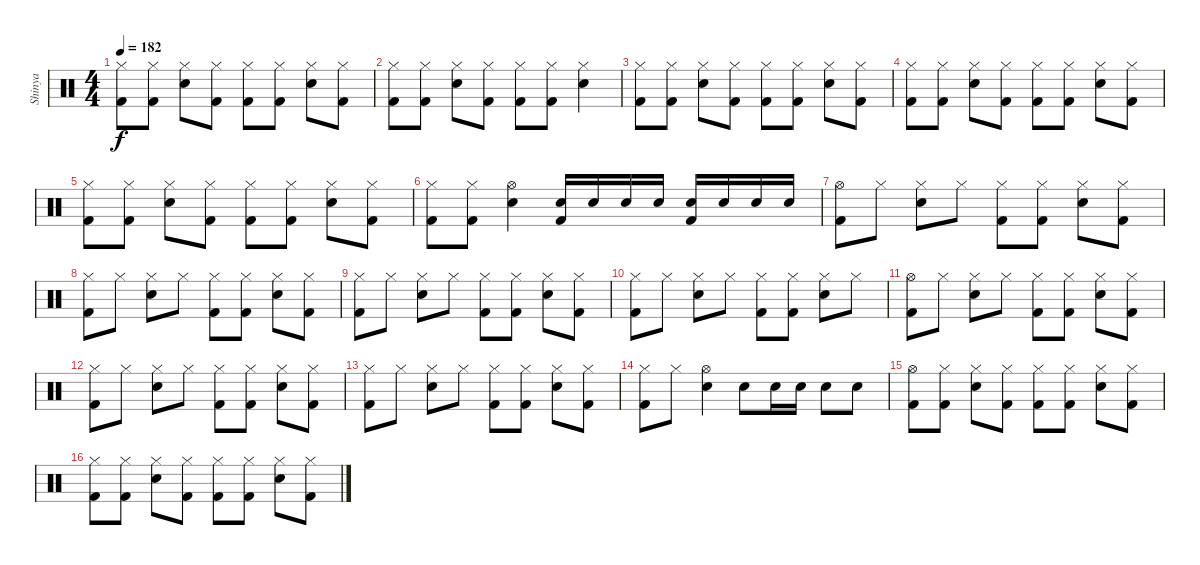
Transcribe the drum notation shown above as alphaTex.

\track ("Shinya" "Shinya") {instrument percussion}
\staff {score}
\articulation defaults
\ts (4 4)
\tempo 182
\clef neutral
\ks c
("Kick (hit) 2" "Hi-Hat (closed)").8{dy f} ("Kick (hit) 2" "Hi-Hat (closed)").8 ("Snare (hit) 2" "Hi-Hat (closed)").8 ("Kick (hit) 2" "Hi-Hat (closed)").8 ("Kick (hit) 2" "Hi-Hat (closed)").8 ("Kick (hit) 2" "Hi-Hat (closed)").8 ("Snare (hit) 2" "Hi-Hat (closed)").8 ("Kick (hit) 2" "Hi-Hat (closed)").8 |
("Kick (hit) 2" "Hi-Hat (closed)").8 ("Kick (hit) 2" "Hi-Hat (closed)").8 ("Snare (hit) 2" "Hi-Hat (closed)").8 ("Kick (hit) 2" "Hi-Hat (closed)").8 ("Kick (hit) 2" "Hi-Hat (closed)").8 ("Kick (hit) 2" "Hi-Hat (closed)").8 ("Hi-Hat (closed)" "Snare (hit) 2").4 |
("Kick (hit) 2" "Hi-Hat (closed)").8 ("Kick (hit) 2" "Hi-Hat (closed)").8 ("Snare (hit) 2" "Hi-Hat (closed)").8 ("Kick (hit) 2" "Hi-Hat (closed)").8 ("Kick (hit) 2" "Hi-Hat (closed)").8 ("Kick (hit) 2" "Hi-Hat (closed)").8 ("Snare (hit) 2" "Hi-Hat (closed)").8 ("Kick (hit) 2" "Hi-Hat (closed)").8 |
("Kick (hit) 2" "Hi-Hat (closed)").8 ("Kick (hit) 2" "Hi-Hat (closed)").8 ("Snare (hit) 2" "Hi-Hat (closed)").8 ("Kick (hit) 2" "Hi-Hat (closed)").8 ("Kick (hit) 2" "Hi-Hat (closed)").8 ("Kick (hit) 2" "Hi-Hat (closed)").8 ("Snare (hit) 2" "Hi-Hat (closed)").8 ("Kick (hit) 2" "Hi-Hat (closed)").8 |
("Kick (hit) 2" "Hi-Hat (closed)").8 ("Kick (hit) 2" "Hi-Hat (closed)").8 ("Snare (hit) 2" "Hi-Hat (closed)").8 ("Kick (hit) 2" "Hi-Hat (closed)").8 ("Kick (hit) 2" "Hi-Hat (closed)").8 ("Kick (hit) 2" "Hi-Hat (closed)").8 ("Snare (hit) 2" "Hi-Hat (closed)").8 ("Kick (hit) 2" "Hi-Hat (closed)").8 |
("Kick (hit) 2" "Hi-Hat (closed)").8 ("Kick (hit) 2" "Hi-Hat (closed)").8 ("Snare (hit) 2" "Hi-Hat (open)").4 ("Snare (hit) 2" "Kick (hit) 2").16 "Snare (hit) 2".16 "Snare (hit) 2".16 "Snare (hit) 2".16 ("Snare (hit) 2" "Kick (hit) 2").16 "Snare (hit) 2".16 "Snare (hit) 2".16 "Snare (hit) 2".16 |
("Kick (hit) 2" "Hi-Hat (open)").8 "Hi-Hat (closed)".8 ("Snare (hit) 2" "Hi-Hat (closed)").8 "Hi-Hat (closed)".8 ("Kick (hit) 2" "Hi-Hat (closed)").8 ("Kick (hit) 2" "Hi-Hat (closed)").8 ("Snare (hit) 2" "Hi-Hat (closed)").8 ("Kick (hit) 2" "Hi-Hat (closed)").8 |
("Kick (hit) 2" "Hi-Hat (closed)").8 "Hi-Hat (closed)".8 ("Snare (hit) 2" "Hi-Hat (closed)").8 "Hi-Hat (closed)".8 ("Kick (hit) 2" "Hi-Hat (closed)").8 ("Kick (hit) 2" "Hi-Hat (closed)").8 ("Snare (hit) 2" "Hi-Hat (closed)").8 ("Kick (hit) 2" "Hi-Hat (closed)").8 |
("Kick (hit) 2" "Hi-Hat (closed)").8 "Hi-Hat (closed)".8 ("Snare (hit) 2" "Hi-Hat (closed)").8 "Hi-Hat (closed)".8 ("Kick (hit) 2" "Hi-Hat (closed)").8 ("Kick (hit) 2" "Hi-Hat (closed)").8 ("Snare (hit) 2" "Hi-Hat (closed)").8 ("Kick (hit) 2" "Hi-Hat (closed)").8 |
("Kick (hit) 2" "Hi-Hat (closed)").8 "Hi-Hat (closed)".8 ("Snare (hit) 2" "Hi-Hat (closed)").8 "Hi-Hat (closed)".8 ("Kick (hit) 2" "Hi-Hat (closed)").8 ("Kick (hit) 2" "Hi-Hat (closed)").8 ("Snare (hit) 2" "Hi-Hat (closed)").8 "Hi-Hat (closed)".8 |
("Kick (hit) 2" "Hi-Hat (open)").8 "Hi-Hat (closed)".8 ("Snare (hit) 2" "Hi-Hat (closed)").8 "Hi-Hat (closed)".8 ("Kick (hit) 2" "Hi-Hat (closed)").8 ("Kick (hit) 2" "Hi-Hat (closed)").8 ("Snare (hit) 2" "Hi-Hat (closed)").8 ("Kick (hit) 2" "Hi-Hat (closed)").8 |
("Kick (hit) 2" "Hi-Hat (closed)").8 "Hi-Hat (closed)".8 ("Snare (hit) 2" "Hi-Hat (closed)").8 "Hi-Hat (closed)".8 ("Kick (hit) 2" "Hi-Hat (closed)").8 ("Kick (hit) 2" "Hi-Hat (closed)").8 ("Snare (hit) 2" "Hi-Hat (closed)").8 ("Kick (hit) 2" "Hi-Hat (closed)").8 |
("Kick (hit) 2" "Hi-Hat (closed)").8 "Hi-Hat (closed)".8 ("Snare (hit) 2" "Hi-Hat (closed)").8 "Hi-Hat (closed)".8 ("Kick (hit) 2" "Hi-Hat (closed)").8 ("Kick (hit) 2" "Hi-Hat (closed)").8 ("Snare (hit) 2" "Hi-Hat (closed)").8 ("Kick (hit) 2" "Hi-Hat (closed)").8 |
("Kick (hit) 2" "Hi-Hat (closed)").8 "Hi-Hat (closed)".8 ("Snare (hit) 2" "Hi-Hat (open)").4 "Snare (hit) 2".8 "Snare (hit) 2".16 "Snare (hit) 2".16 "Snare (hit) 2".8 "Snare (hit) 2".8 |
("Kick (hit) 2" "Hi-Hat (open)").8 ("Kick (hit) 2" "Hi-Hat (closed)").8 ("Snare (hit) 2" "Hi-Hat (closed)").8 ("Kick (hit) 2" "Hi-Hat (closed)").8 ("Kick (hit) 2" "Hi-Hat (closed)").8 ("Kick (hit) 2" "Hi-Hat (closed)").8 ("Snare (hit) 2" "Hi-Hat (closed)").8 ("Kick (hit) 2" "Hi-Hat (closed)").8 |
("Kick (hit) 2" "Hi-Hat (closed)").8 ("Kick (hit) 2" "Hi-Hat (closed)").8 ("Snare (hit) 2" "Hi-Hat (closed)").8 ("Kick (hit) 2" "Hi-Hat (closed)").8 ("Kick (hit) 2" "Hi-Hat (closed)").8 ("Kick (hit) 2" "Hi-Hat (closed)").8 ("Snare (hit) 2" "Hi-Hat (closed)").8 ("Kick (hit) 2" "Hi-Hat (closed)").8
